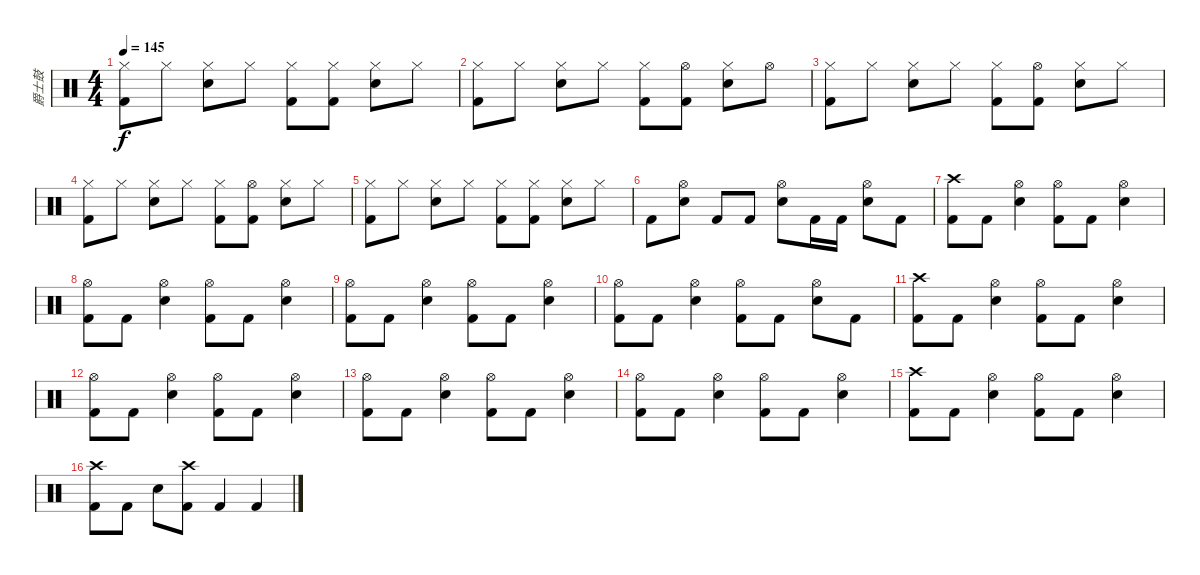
\track ("爵士鼓" "爵士鼓") {instrument percussion}
\staff {score}
\articulation defaults
\ts (4 4)
\tempo 145
\clef neutral
\ks c
("Hi-Hat (closed)" "Kick (hit) 2").8{dy f} "Hi-Hat (closed)".8 ("Hi-Hat (closed)" "Electric Snare (hit)").8 "Hi-Hat (closed)".8 ("Hi-Hat (closed)" "Kick (hit) 2").8 ("Hi-Hat (closed)" "Kick (hit) 2").8 ("Hi-Hat (closed)" "Electric Snare (hit)").8 "Hi-Hat (closed)".8 |
("Hi-Hat (closed)" "Kick (hit) 2").8 "Hi-Hat (closed)".8 ("Hi-Hat (closed)" "Electric Snare (hit)").8 "Hi-Hat (closed)".8 ("Hi-Hat (closed)" "Kick (hit) 2").8 ("Hi-Hat (open)" "Kick (hit) 2").8 ("Hi-Hat (closed)" "Electric Snare (hit)").8 "Hi-Hat (open)".8 |
("Hi-Hat (closed)" "Kick (hit) 2").8 "Hi-Hat (closed)".8 ("Hi-Hat (closed)" "Electric Snare (hit)").8 "Hi-Hat (closed)".8 ("Hi-Hat (closed)" "Kick (hit) 2").8 ("Hi-Hat (open)" "Kick (hit) 2").8 ("Hi-Hat (closed)" "Electric Snare (hit)").8 "Hi-Hat (closed)".8 |
("Hi-Hat (closed)" "Kick (hit) 2").8 "Hi-Hat (closed)".8 ("Hi-Hat (closed)" "Electric Snare (hit)").8 "Hi-Hat (closed)".8 ("Hi-Hat (closed)" "Kick (hit) 2").8 ("Hi-Hat (open)" "Kick (hit) 2").8 ("Hi-Hat (closed)" "Electric Snare (hit)").8 "Hi-Hat (closed)".8 |
("Hi-Hat (closed)" "Kick (hit) 2").8 "Hi-Hat (closed)".8 ("Hi-Hat (closed)" "Electric Snare (hit)").8 "Hi-Hat (closed)".8 ("Hi-Hat (closed)" "Kick (hit) 2").8 ("Hi-Hat (closed)" "Kick (hit) 2").8 ("Hi-Hat (closed)" "Electric Snare (hit)").8 "Hi-Hat (closed)".8 |
"Kick (hit) 2".8 ("Hi-Hat (open)" "Electric Snare (hit)").8 "Kick (hit) 2".8 "Kick (hit) 2".8 ("Hi-Hat (open)" "Electric Snare (hit)").8 "Kick (hit) 2".16 "Kick (hit) 2".16 ("Hi-Hat (open)" "Electric Snare (hit)").8 "Kick (hit) 2".8 |
("Crash high (hit)" "Kick (hit) 2").8 "Kick (hit) 2".8 ("Hi-Hat (open)" "Electric Snare (hit)").4 ("Hi-Hat (open)" "Kick (hit) 2").8 "Kick (hit) 2".8 ("Hi-Hat (open)" "Electric Snare (hit)").4 |
("Hi-Hat (open)" "Kick (hit) 2").8 "Kick (hit) 2".8 ("Hi-Hat (open)" "Electric Snare (hit)").4 ("Hi-Hat (open)" "Kick (hit) 2").8 "Kick (hit) 2".8 ("Hi-Hat (open)" "Electric Snare (hit)").4 |
("Hi-Hat (open)" "Kick (hit) 2").8 "Kick (hit) 2".8 ("Hi-Hat (open)" "Electric Snare (hit)").4 ("Hi-Hat (open)" "Kick (hit) 2").8 "Kick (hit) 2".8 ("Hi-Hat (open)" "Electric Snare (hit)").4 |
("Hi-Hat (open)" "Kick (hit) 2").8 "Kick (hit) 2".8 ("Hi-Hat (open)" "Electric Snare (hit)").4 ("Hi-Hat (open)" "Kick (hit) 2").8 "Kick (hit) 2".8 ("Hi-Hat (open)" "Electric Snare (hit)").8 "Kick (hit) 2".8 |
("Crash high (hit)" "Kick (hit) 2").8 "Kick (hit) 2".8 ("Hi-Hat (open)" "Electric Snare (hit)").4 ("Hi-Hat (open)" "Kick (hit) 2").8 "Kick (hit) 2".8 ("Hi-Hat (open)" "Electric Snare (hit)").4 |
("Hi-Hat (open)" "Kick (hit) 2").8 "Kick (hit) 2".8 ("Hi-Hat (open)" "Electric Snare (hit)").4 ("Hi-Hat (open)" "Kick (hit) 2").8 "Kick (hit) 2".8 ("Hi-Hat (open)" "Electric Snare (hit)").4 |
("Hi-Hat (open)" "Kick (hit) 2").8 "Kick (hit) 2".8 ("Hi-Hat (open)" "Electric Snare (hit)").4 ("Hi-Hat (open)" "Kick (hit) 2").8 "Kick (hit) 2".8 ("Hi-Hat (open)" "Electric Snare (hit)").4 |
("Hi-Hat (open)" "Kick (hit) 2").8 "Kick (hit) 2".8 ("Hi-Hat (open)" "Electric Snare (hit)").4 ("Hi-Hat (open)" "Kick (hit) 2").8 "Kick (hit) 2".8 ("Hi-Hat (open)" "Electric Snare (hit)").4 |
("Crash high (hit)" "Kick (hit) 2").8 "Kick (hit) 2".8 ("Hi-Hat (open)" "Electric Snare (hit)").4 ("Hi-Hat (open)" "Kick (hit) 2").8 "Kick (hit) 2".8 ("Hi-Hat (open)" "Electric Snare (hit)").4 |
("Crash high (hit)" "Kick (hit) 2").8 "Kick (hit) 2".8 "Electric Snare (hit)".8 ("Crash high (hit)" "Kick (hit) 2").8 "Kick (hit) 2".4 "Kick (hit) 2".4
